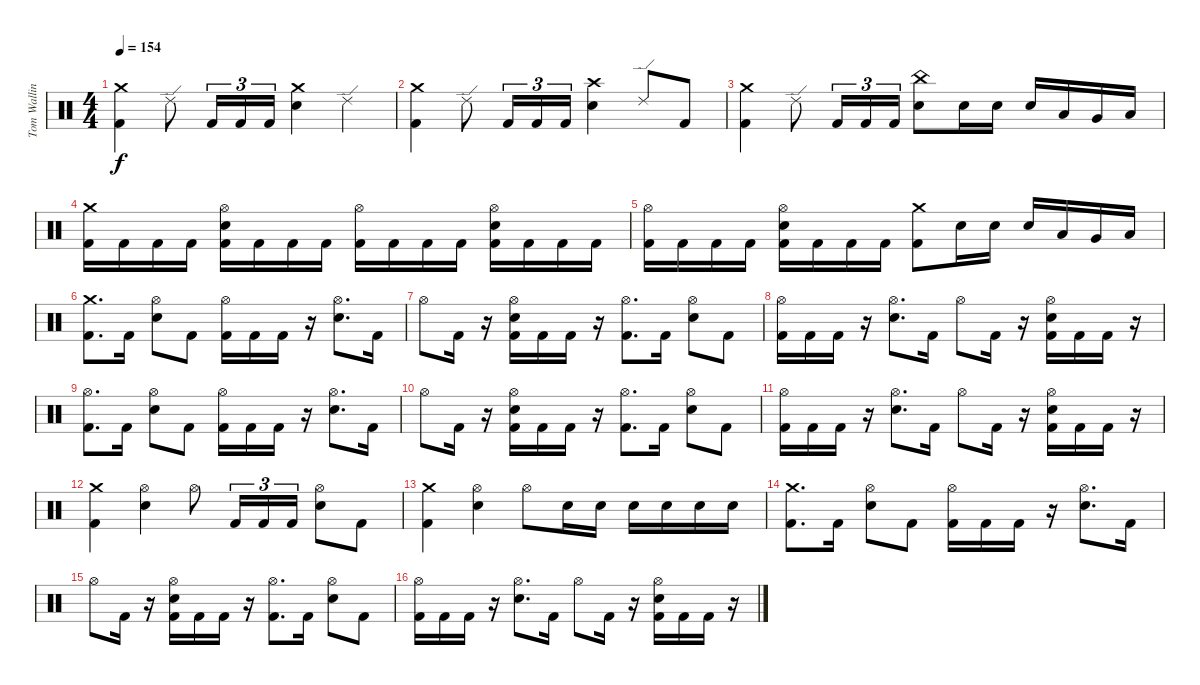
\track ("Tom Walling" "Tom Wallin") {instrument percussion}
\staff {score}
\articulation defaults
\ts (4 4)
\tempo 154
\clef neutral
\ks c
("Crash medium (hit)" "Kick (hit) 2").4{dy f} "Ride (edge) 2".8 "Kick (hit) 2".16{tu (3 2)} "Kick (hit) 2".16{tu (3 2)} "Kick (hit) 2".16{tu (3 2)} ("Crash medium (hit)" "Electric Snare (hit)").4 "Ride (edge) 2".4 |
("Crash medium (hit)" "Kick (hit) 2").4 "Ride (edge) 2".8 "Kick (hit) 2".16{tu (3 2)} "Kick (hit) 2".16{tu (3 2)} "Kick (hit) 2".16{tu (3 2)} ("Crash high (hit)" "Electric Snare (hit)").4 "Ride (edge) 2".8 "Kick (hit) 2".8 |
("Crash medium (hit)" "Kick (hit) 2").4 "Ride (edge) 2".8 "Kick (hit) 2".16{tu (3 2)} "Kick (hit) 2".16{tu (3 2)} "Kick (hit) 2".16{tu (3 2)} ("China (hit)" "Electric Snare (hit)").8 "Electric Snare (hit)".16 "Electric Snare (hit)".16 "Electric Snare (hit)".16 "Low Tom (hit)".16 "Very Low Tom (hit)".16 "Low Floor Tom (hit)".16 |
("Crash medium (hit)" "Kick (hit) 2").16 "Kick (hit) 2".16 "Kick (hit) 2".16 "Kick (hit) 2".16 ("Kick (hit) 2" "Electric Snare (hit)" "Hi-Hat (open)").16 "Kick (hit) 2".16 "Kick (hit) 2".16 "Kick (hit) 2".16 ("Kick (hit) 2" "Hi-Hat (open)").16 "Kick (hit) 2".16 "Kick (hit) 2".16 "Kick (hit) 2".16 ("Kick (hit) 2" "Electric Snare (hit)" "Hi-Hat (open)").16 "Kick (hit) 2".16 "Kick (hit) 2".16 "Kick (hit) 2".16 |
("Kick (hit) 2" "Hi-Hat (open)").16 "Kick (hit) 2".16 "Kick (hit) 2".16 "Kick (hit) 2".16 ("Kick (hit) 2" "Electric Snare (hit)" "Hi-Hat (open)").16 "Kick (hit) 2".16 "Kick (hit) 2".16 "Kick (hit) 2".16 ("Crash medium (hit)" "Kick (hit) 2").8 "Electric Snare (hit)".16 "Electric Snare (hit)".16 "Electric Snare (hit)".16 "Low Tom (hit)".16 "Very Low Tom (hit)".16 "Low Floor Tom (hit)".16 |
("Crash medium (hit)" "Kick (hit) 2").8{d} "Kick (hit) 2".16 ("Hi-Hat (open)" "Electric Snare (hit)").8 "Kick (hit) 2".8 ("Hi-Hat (open)" "Kick (hit) 2").16 "Kick (hit) 2".16 "Kick (hit) 2".16 r.16 ("Hi-Hat (open)" "Electric Snare (hit)").8{d} "Kick (hit) 2".16 |
"Hi-Hat (open)".8 "Kick (hit) 2".16 r.16 ("Electric Snare (hit)" "Kick (hit) 2" "Hi-Hat (open)").16 "Kick (hit) 2".16 "Kick (hit) 2".16 r.16 ("Kick (hit) 2" "Hi-Hat (open)").8{d} "Kick (hit) 2".16 ("Electric Snare (hit)" "Hi-Hat (open)").8 "Kick (hit) 2".8 |
("Hi-Hat (open)" "Kick (hit) 2").16 "Kick (hit) 2".16 "Kick (hit) 2".16 r.16 ("Hi-Hat (open)" "Electric Snare (hit)").8{d} "Kick (hit) 2".16 "Hi-Hat (open)".8 "Kick (hit) 2".16 r.16 ("Hi-Hat (open)" "Kick (hit) 2" "Electric Snare (hit)").16 "Kick (hit) 2".16 "Kick (hit) 2".16 r.16 |
("Hi-Hat (open)" "Kick (hit) 2").8{d} "Kick (hit) 2".16 ("Hi-Hat (open)" "Electric Snare (hit)").8 "Kick (hit) 2".8 ("Kick (hit) 2" "Hi-Hat (open)").16 "Kick (hit) 2".16 "Kick (hit) 2".16 r.16 ("Electric Snare (hit)" "Hi-Hat (open)").8{d} "Kick (hit) 2".16 |
"Hi-Hat (open)".8 "Kick (hit) 2".16 r.16 ("Electric Snare (hit)" "Kick (hit) 2" "Hi-Hat (open)").16 "Kick (hit) 2".16 "Kick (hit) 2".16 r.16 ("Kick (hit) 2" "Hi-Hat (open)").8{d} "Kick (hit) 2".16 ("Electric Snare (hit)" "Hi-Hat (open)").8 "Kick (hit) 2".8 |
("Hi-Hat (open)" "Kick (hit) 2").16 "Kick (hit) 2".16 "Kick (hit) 2".16 r.16 ("Hi-Hat (open)" "Electric Snare (hit)").8{d} "Kick (hit) 2".16 "Hi-Hat (open)".8 "Kick (hit) 2".16 r.16 ("Hi-Hat (open)" "Kick (hit) 2" "Electric Snare (hit)").16 "Kick (hit) 2".16 "Kick (hit) 2".16 r.16 |
("Kick (hit) 2" "Crash medium (hit)").4 ("Electric Snare (hit)" "Hi-Hat (open)").4 "Hi-Hat (open)".8 "Kick (hit) 2".16{tu (3 2)} "Kick (hit) 2".16{tu (3 2)} "Kick (hit) 2".16{tu (3 2)} ("Electric Snare (hit)" "Hi-Hat (open)").8 "Kick (hit) 2".8 |
("Kick (hit) 2" "Crash medium (hit)").4 ("Electric Snare (hit)" "Hi-Hat (open)").4 "Hi-Hat (open)".8 "Electric Snare (hit)".16 "Electric Snare (hit)".16 "Electric Snare (hit)".16 "Electric Snare (hit)".16 "Electric Snare (hit)".16 "Electric Snare (hit)".16 |
("Crash medium (hit)" "Kick (hit) 2").8{d} "Kick (hit) 2".16 ("Hi-Hat (open)" "Electric Snare (hit)").8 "Kick (hit) 2".8 ("Hi-Hat (open)" "Kick (hit) 2").16 "Kick (hit) 2".16 "Kick (hit) 2".16 r.16 ("Hi-Hat (open)" "Electric Snare (hit)").8{d} "Kick (hit) 2".16 |
"Hi-Hat (open)".8 "Kick (hit) 2".16 r.16 ("Electric Snare (hit)" "Kick (hit) 2" "Hi-Hat (open)").16 "Kick (hit) 2".16 "Kick (hit) 2".16 r.16 ("Kick (hit) 2" "Hi-Hat (open)").8{d} "Kick (hit) 2".16 ("Electric Snare (hit)" "Hi-Hat (open)").8 "Kick (hit) 2".8 |
("Hi-Hat (open)" "Kick (hit) 2").16 "Kick (hit) 2".16 "Kick (hit) 2".16 r.16 ("Hi-Hat (open)" "Electric Snare (hit)").8{d} "Kick (hit) 2".16 "Hi-Hat (open)".8 "Kick (hit) 2".16 r.16 ("Hi-Hat (open)" "Kick (hit) 2" "Electric Snare (hit)").16 "Kick (hit) 2".16 "Kick (hit) 2".16 r.16
